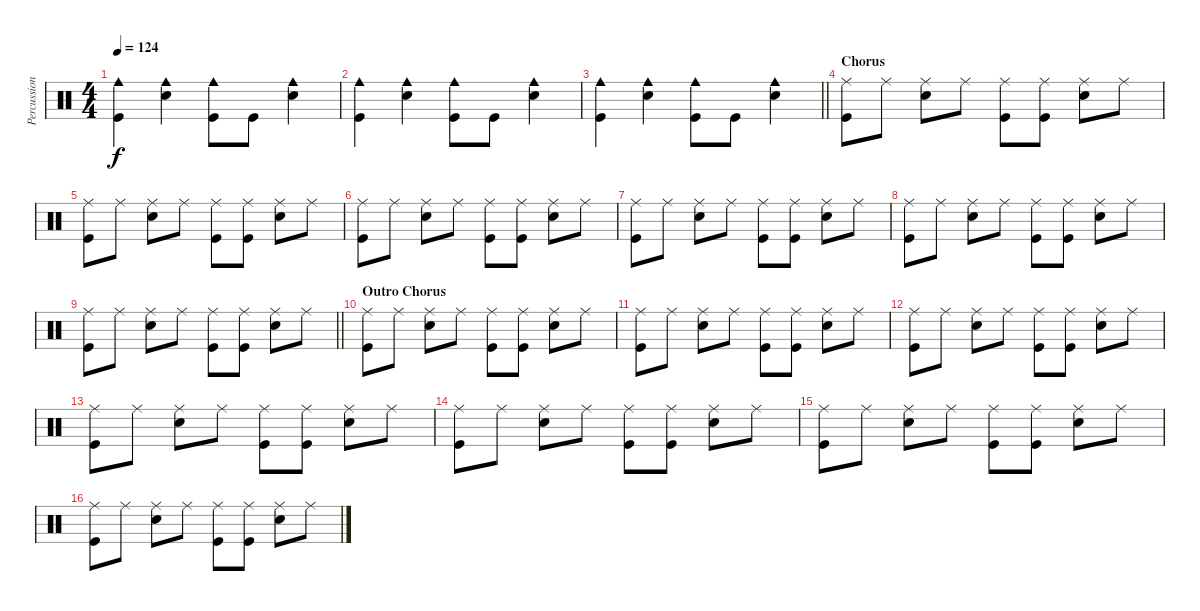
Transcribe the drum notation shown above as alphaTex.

\track ("Percussion" "Percussion") {solo instrument percussion}
\staff {score}
\articulation defaults
\ts (4 4)
\tempo 124
\clef neutral
\ks c
("Cowbell medium (hit)" "Kick (hit)").4{dy f} ("Cowbell medium (hit)" "Electric Snare (hit)").4 ("Cowbell medium (hit)" "Kick (hit)").8 "Kick (hit)".8 ("Cowbell medium (hit)" "Electric Snare (hit)").4 |
("Cowbell medium (hit)" "Kick (hit)").4 ("Cowbell medium (hit)" "Electric Snare (hit)").4 ("Cowbell medium (hit)" "Kick (hit)").8 "Kick (hit)".8 ("Cowbell medium (hit)" "Electric Snare (hit)").4 |
\barLineRight lightlight
("Cowbell medium (hit)" "Kick (hit)").4 ("Cowbell medium (hit)" "Electric Snare (hit)").4 ("Cowbell medium (hit)" "Kick (hit)").8 "Kick (hit)".8 ("Cowbell medium (hit)" "Electric Snare (hit)").4 |
\section ("" "Chorus")
("Ride (middle)" "Kick (hit)").8 "Ride (middle)".8 ("Ride (middle)" "Electric Snare (hit)").8 "Ride (middle)".8 ("Ride (middle)" "Kick (hit)").8 ("Ride (middle)" "Kick (hit)").8 ("Ride (middle)" "Electric Snare (hit)").8 "Ride (middle)".8 |
("Ride (middle)" "Kick (hit)").8 "Ride (middle)".8 ("Ride (middle)" "Electric Snare (hit)").8 "Ride (middle)".8 ("Ride (middle)" "Kick (hit)").8 ("Ride (middle)" "Kick (hit)").8 ("Ride (middle)" "Electric Snare (hit)").8 "Ride (middle)".8 |
("Ride (middle)" "Kick (hit)").8 "Ride (middle)".8 ("Ride (middle)" "Electric Snare (hit)").8 "Ride (middle)".8 ("Ride (middle)" "Kick (hit)").8 ("Ride (middle)" "Kick (hit)").8 ("Ride (middle)" "Electric Snare (hit)").8 "Ride (middle)".8 |
("Ride (middle)" "Kick (hit)").8 "Ride (middle)".8 ("Ride (middle)" "Electric Snare (hit)").8 "Ride (middle)".8 ("Ride (middle)" "Kick (hit)").8 ("Ride (middle)" "Kick (hit)").8 ("Ride (middle)" "Electric Snare (hit)").8 "Ride (middle)".8 |
("Ride (middle)" "Kick (hit)").8 "Ride (middle)".8 ("Ride (middle)" "Electric Snare (hit)").8 "Ride (middle)".8 ("Ride (middle)" "Kick (hit)").8 ("Ride (middle)" "Kick (hit)").8 ("Ride (middle)" "Electric Snare (hit)").8 "Ride (middle)".8 |
\barLineRight lightlight
("Ride (middle)" "Kick (hit)").8 "Ride (middle)".8 ("Ride (middle)" "Electric Snare (hit)").8 "Ride (middle)".8 ("Ride (middle)" "Kick (hit)").8 ("Ride (middle)" "Kick (hit)").8 ("Ride (middle)" "Electric Snare (hit)").8 "Ride (middle)".8 |
\section ("" "Outro Chorus")
("Ride (middle)" "Kick (hit)").8 "Ride (middle)".8 ("Ride (middle)" "Electric Snare (hit)").8 "Ride (middle)".8 ("Ride (middle)" "Kick (hit)").8 ("Ride (middle)" "Kick (hit)").8 ("Ride (middle)" "Electric Snare (hit)").8 "Ride (middle)".8 |
("Ride (middle)" "Kick (hit)").8 "Ride (middle)".8 ("Ride (middle)" "Electric Snare (hit)").8 "Ride (middle)".8 ("Ride (middle)" "Kick (hit)").8 ("Ride (middle)" "Kick (hit)").8 ("Ride (middle)" "Electric Snare (hit)").8 "Ride (middle)".8 |
("Ride (middle)" "Kick (hit)").8 "Ride (middle)".8 ("Ride (middle)" "Electric Snare (hit)").8 "Ride (middle)".8 ("Ride (middle)" "Kick (hit)").8 ("Ride (middle)" "Kick (hit)").8 ("Ride (middle)" "Electric Snare (hit)").8 "Ride (middle)".8 |
("Ride (middle)" "Kick (hit)").8 "Ride (middle)".8 ("Ride (middle)" "Electric Snare (hit)").8 "Ride (middle)".8 ("Ride (middle)" "Kick (hit)").8 ("Ride (middle)" "Kick (hit)").8 ("Ride (middle)" "Electric Snare (hit)").8 "Ride (middle)".8 |
("Ride (middle)" "Kick (hit)").8 "Ride (middle)".8 ("Ride (middle)" "Electric Snare (hit)").8 "Ride (middle)".8 ("Ride (middle)" "Kick (hit)").8 ("Ride (middle)" "Kick (hit)").8 ("Ride (middle)" "Electric Snare (hit)").8 "Ride (middle)".8 |
("Ride (middle)" "Kick (hit)").8 "Ride (middle)".8 ("Ride (middle)" "Electric Snare (hit)").8 "Ride (middle)".8 ("Ride (middle)" "Kick (hit)").8 ("Ride (middle)" "Kick (hit)").8 ("Ride (middle)" "Electric Snare (hit)").8 "Ride (middle)".8 |
("Ride (middle)" "Kick (hit)").8 "Ride (middle)".8 ("Ride (middle)" "Electric Snare (hit)").8 "Ride (middle)".8 ("Ride (middle)" "Kick (hit)").8 ("Ride (middle)" "Kick (hit)").8 ("Ride (middle)" "Electric Snare (hit)").8 "Ride (middle)".8
